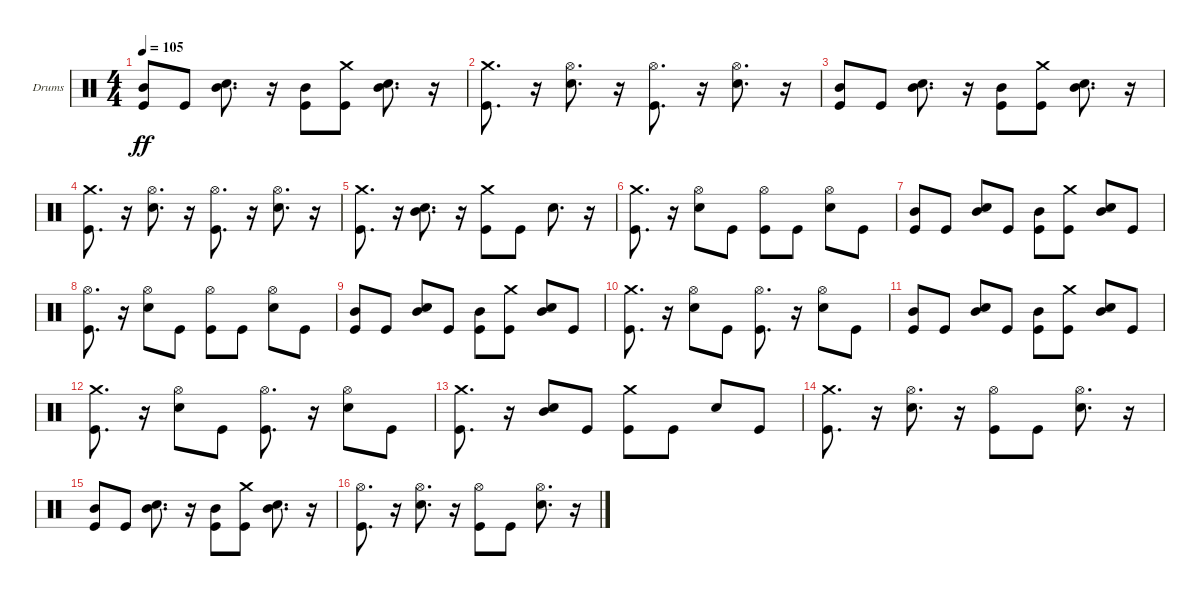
\defaultSystemsLayout 4
\bracketExtendMode groupsimilarinstruments
\firstSystemTrackNameOrientation horizontal
\otherSystemsTrackNameOrientation horizontal
\track ("Drumkit" "Drums") {instrument percussion}
\staff {score}
\articulation defaults
\ts (4 4)
\tempo 105
\clef neutral
\ks c
("Kick (hit)" "Mid Tom (hit)").8{dy ff} "Kick (hit)".8 ("Snare (hit) 2" "Mid Tom (hit)").8{d} r.16 ("Kick (hit)" "Mid Tom (hit)").8 ("Kick (hit)" "Crash medium (hit)").8 ("Snare (hit) 2" "Mid Tom (hit)").8{d} r.16 |
("Kick (hit)" "Crash medium (hit)").8{d} r.16 ("Snare (hit) 2" "Hi-Hat (open)").8{d} r.16 ("Hi-Hat (open)" "Kick (hit)").8{d} r.16 ("Hi-Hat (open)" "Snare (hit) 2").8{d} r.16 |
("Mid Tom (hit)" "Kick (hit)").8 "Kick (hit)".8 ("Snare (hit) 2" "Mid Tom (hit)").8{d} r.16 ("Kick (hit)" "Mid Tom (hit)").8 ("Kick (hit)" "Crash medium (hit)").8 ("Snare (hit) 2" "Mid Tom (hit)").8{d} r.16 |
("Kick (hit)" "Crash medium (hit)").8{d} r.16 ("Snare (hit) 2" "Hi-Hat (open)").8{d} r.16 ("Kick (hit)" "Hi-Hat (open)").8{d} r.16 ("Snare (hit) 2" "Hi-Hat (open)").8{d} r.16 |
("Kick (hit)" "Crash medium (hit)").8{d} r.16 ("Snare (hit) 2" "Mid Tom (hit)").8{d} r.16 ("Kick (hit)" "Crash medium (hit)").8 "Kick (hit)".8 "Snare (hit) 2".8{d} r.16 |
("Kick (hit)" "Crash medium (hit)").8{d} r.16 ("Snare (hit) 2" "Hi-Hat (open)").8 "Kick (hit)".8 ("Kick (hit)" "Hi-Hat (open)").8 "Kick (hit)".8 ("Snare (hit) 2" "Hi-Hat (open)").8 "Kick (hit)".8 |
("Kick (hit)" "Mid Tom (hit)").8 "Kick (hit)".8 ("Snare (hit) 2" "Mid Tom (hit)").8 "Kick (hit)".8 ("Kick (hit)" "Mid Tom (hit)").8 ("Kick (hit)" "Crash medium (hit)").8 ("Snare (hit) 2" "Mid Tom (hit)").8 "Kick (hit)".8 |
("Kick (hit)" "Hi-Hat (open)").8{d} r.16 ("Snare (hit) 2" "Hi-Hat (open)").8 "Kick (hit)".8 ("Kick (hit)" "Hi-Hat (open)").8 "Kick (hit)".8 ("Snare (hit) 2" "Hi-Hat (open)").8 "Kick (hit)".8 |
("Kick (hit)" "Mid Tom (hit)").8 "Kick (hit)".8 ("Snare (hit) 2" "Mid Tom (hit)").8 "Kick (hit)".8 ("Kick (hit)" "Mid Tom (hit)").8 ("Kick (hit)" "Crash medium (hit)").8 ("Snare (hit) 2" "Mid Tom (hit)").8 "Kick (hit)".8 |
("Kick (hit)" "Crash medium (hit)").8{d} r.16 ("Snare (hit) 2" "Hi-Hat (open)").8 "Kick (hit)".8 ("Kick (hit)" "Hi-Hat (open)").8{d} r.16 ("Snare (hit) 2" "Hi-Hat (open)").8 "Kick (hit)".8 |
("Kick (hit)" "Mid Tom (hit)").8 "Kick (hit)".8 ("Snare (hit) 2" "Mid Tom (hit)").8 "Kick (hit)".8 ("Kick (hit)" "Mid Tom (hit)").8 ("Kick (hit)" "Crash medium (hit)").8 ("Snare (hit) 2" "Mid Tom (hit)").8 "Kick (hit)".8 |
("Kick (hit)" "Crash medium (hit)").8{d} r.16 ("Snare (hit) 2" "Hi-Hat (open)").8 "Kick (hit)".8 ("Kick (hit)" "Hi-Hat (open)").8{d} r.16 ("Snare (hit) 2" "Hi-Hat (open)").8 "Kick (hit)".8 |
("Kick (hit)" "Crash medium (hit)").8{d} r.16 ("Snare (hit) 2" "Mid Tom (hit)").8 "Kick (hit)".8 ("Kick (hit)" "Crash medium (hit)").8 "Kick (hit)".8 "Snare (hit) 2".8 "Kick (hit)".8 |
("Kick (hit)" "Crash medium (hit)").8{d} r.16 ("Snare (hit) 2" "Hi-Hat (open)").8{d} r.16 ("Kick (hit)" "Hi-Hat (open)").8 "Kick (hit)".8 ("Snare (hit) 2" "Hi-Hat (open)").8{d} r.16 |
("Kick (hit)" "Mid Tom (hit)").8 "Kick (hit)".8 ("Snare (hit) 2" "Mid Tom (hit)").8{d} r.16 ("Kick (hit)" "Mid Tom (hit)").8 ("Kick (hit)" "Crash medium (hit)").8 ("Snare (hit) 2" "Mid Tom (hit)").8{d} r.16 |
("Kick (hit)" "Hi-Hat (open)").8{d} r.16 ("Snare (hit) 2" "Hi-Hat (open)").8{d} r.16 ("Kick (hit)" "Hi-Hat (open)").8 "Kick (hit)".8 ("Snare (hit) 2" "Hi-Hat (open)").8{d} r.16
